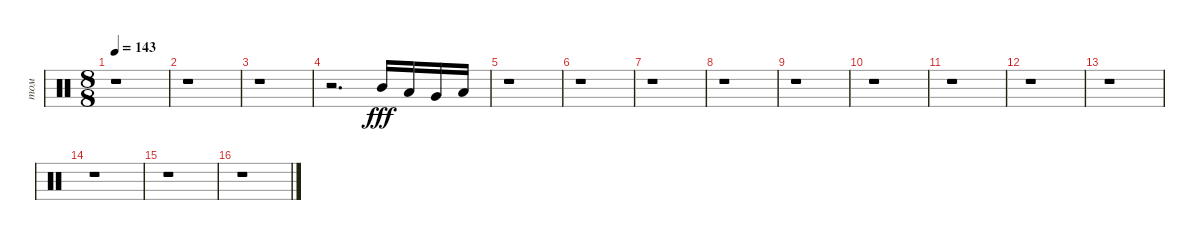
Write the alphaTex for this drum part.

\track ("том" "том") {instrument percussion}
\staff {score}
\articulation defaults
\ts (8 8)
\tempo 143
\clef neutral
\ks c
r.1{dy fff} |
r.1 |
r.1 |
r.2{d} "Mid Tom (hit)".16 "Low Tom (hit)".16 "Very Low Tom (hit)".16 "Low Floor Tom (hit)".16 |
r.1 |
r.1 |
r.1 |
r.1 |
r.1 |
r.1 |
r.1 |
r.1 |
r.1 |
r.1 |
r.1 |
r.1
